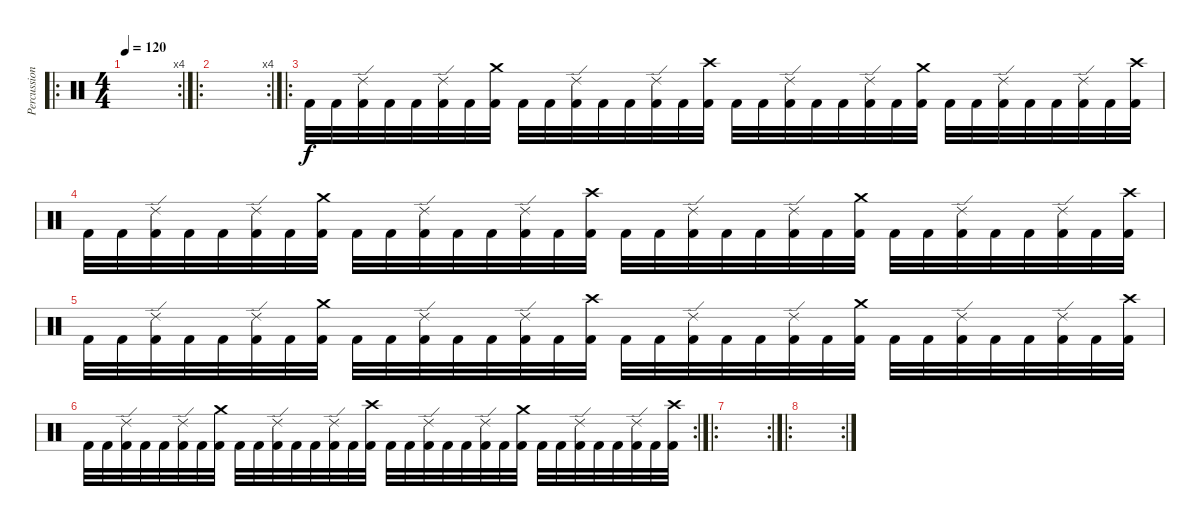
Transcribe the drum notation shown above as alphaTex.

\track ("Percussion" "Percussion") {instrument percussion}
\staff {score}
\articulation defaults
\ro
\rc 4
\ts (4 4)
\tempo 120
\clef neutral
\ks c
|
\ro
\rc 4
|
\ro "Kick (hit) 2".32 "Kick (hit) 2".32
("Ride (edge) 2" "Kick (hit) 2").32 "Kick (hit) 2".32 "Kick (hit) 2".32 ("Ride (edge) 2" "Kick (hit) 2").32 "Kick (hit) 2".32 ("Crash medium (hit)" "Kick (hit) 2").32 "Kick (hit) 2".32 "Kick (hit) 2".32 ("Ride (edge) 2" "Kick (hit) 2").32 "Kick (hit) 2".32 "Kick (hit) 2".32 ("Ride (edge) 2" "Kick (hit) 2").32 "Kick (hit) 2".32 ("Crash high (hit)" "Kick (hit) 2").32 "Kick (hit) 2".32 "Kick (hit) 2".32 ("Ride (edge) 2" "Kick (hit) 2").32 "Kick (hit) 2".32 "Kick (hit) 2".32 ("Ride (edge) 2" "Kick (hit) 2").32 "Kick (hit) 2".32 ("Crash medium (hit)" "Kick (hit) 2").32 "Kick (hit) 2".32 "Kick (hit) 2".32 ("Ride (edge) 2" "Kick (hit) 2").32 "Kick (hit) 2".32 "Kick (hit) 2".32 ("Ride (edge) 2" "Kick (hit) 2").32 "Kick (hit) 2".32 ("Crash high (hit)" "Kick (hit) 2").32 |
"Kick (hit) 2".32 "Kick (hit) 2".32 ("Ride (edge) 2" "Kick (hit) 2").32 "Kick (hit) 2".32 "Kick (hit) 2".32 ("Ride (edge) 2" "Kick (hit) 2").32 "Kick (hit) 2".32 ("Crash medium (hit)" "Kick (hit) 2").32 "Kick (hit) 2".32 "Kick (hit) 2".32 ("Ride (edge) 2" "Kick (hit) 2").32 "Kick (hit) 2".32 "Kick (hit) 2".32 ("Ride (edge) 2" "Kick (hit) 2").32 "Kick (hit) 2".32 ("Crash high (hit)" "Kick (hit) 2").32 "Kick (hit) 2".32 "Kick (hit) 2".32 ("Ride (edge) 2" "Kick (hit) 2").32 "Kick (hit) 2".32 "Kick (hit) 2".32 ("Ride (edge) 2" "Kick (hit) 2").32 "Kick (hit) 2".32 ("Crash medium (hit)" "Kick (hit) 2").32 "Kick (hit) 2".32 "Kick (hit) 2".32 ("Ride (edge) 2" "Kick (hit) 2").32 "Kick (hit) 2".32 "Kick (hit) 2".32 ("Ride (edge) 2" "Kick (hit) 2").32 "Kick (hit) 2".32 ("Crash high (hit)" "Kick (hit) 2").32 |
"Kick (hit) 2".32 "Kick (hit) 2".32 ("Ride (edge) 2" "Kick (hit) 2").32 "Kick (hit) 2".32 "Kick (hit) 2".32 ("Ride (edge) 2" "Kick (hit) 2").32 "Kick (hit) 2".32 ("Crash medium (hit)" "Kick (hit) 2").32 "Kick (hit) 2".32 "Kick (hit) 2".32 ("Ride (edge) 2" "Kick (hit) 2").32 "Kick (hit) 2".32 "Kick (hit) 2".32 ("Ride (edge) 2" "Kick (hit) 2").32 "Kick (hit) 2".32 ("Crash high (hit)" "Kick (hit) 2").32 "Kick (hit) 2".32 "Kick (hit) 2".32 ("Ride (edge) 2" "Kick (hit) 2").32 "Kick (hit) 2".32 "Kick (hit) 2".32 ("Ride (edge) 2" "Kick (hit) 2").32 "Kick (hit) 2".32 ("Crash medium (hit)" "Kick (hit) 2").32 "Kick (hit) 2".32 "Kick (hit) 2".32 ("Ride (edge) 2" "Kick (hit) 2").32 "Kick (hit) 2".32 "Kick (hit) 2".32 ("Ride (edge) 2" "Kick (hit) 2").32 "Kick (hit) 2".32 ("Crash high (hit)" "Kick (hit) 2").32 |
\rc 2 "Kick (hit) 2".32 "Kick (hit) 2".32
("Ride (edge) 2" "Kick (hit) 2").32 "Kick (hit) 2".32 "Kick (hit) 2".32 ("Ride (edge) 2" "Kick (hit) 2").32 "Kick (hit) 2".32 ("Crash medium (hit)" "Kick (hit) 2").32 "Kick (hit) 2".32 "Kick (hit) 2".32 ("Ride (edge) 2" "Kick (hit) 2").32 "Kick (hit) 2".32 "Kick (hit) 2".32 ("Ride (edge) 2" "Kick (hit) 2").32 "Kick (hit) 2".32 ("Crash high (hit)" "Kick (hit) 2").32 "Kick (hit) 2".32 "Kick (hit) 2".32 ("Ride (edge) 2" "Kick (hit) 2").32 "Kick (hit) 2".32 "Kick (hit) 2".32 ("Ride (edge) 2" "Kick (hit) 2").32 "Kick (hit) 2".32 ("Crash medium (hit)" "Kick (hit) 2").32 "Kick (hit) 2".32 "Kick (hit) 2".32 ("Ride (edge) 2" "Kick (hit) 2").32 "Kick (hit) 2".32 "Kick (hit) 2".32 ("Ride (edge) 2" "Kick (hit) 2").32 "Kick (hit) 2".32 ("Crash high (hit)" "Kick (hit) 2").32 |
\ro
\rc 2
|
\ro
\rc 2
